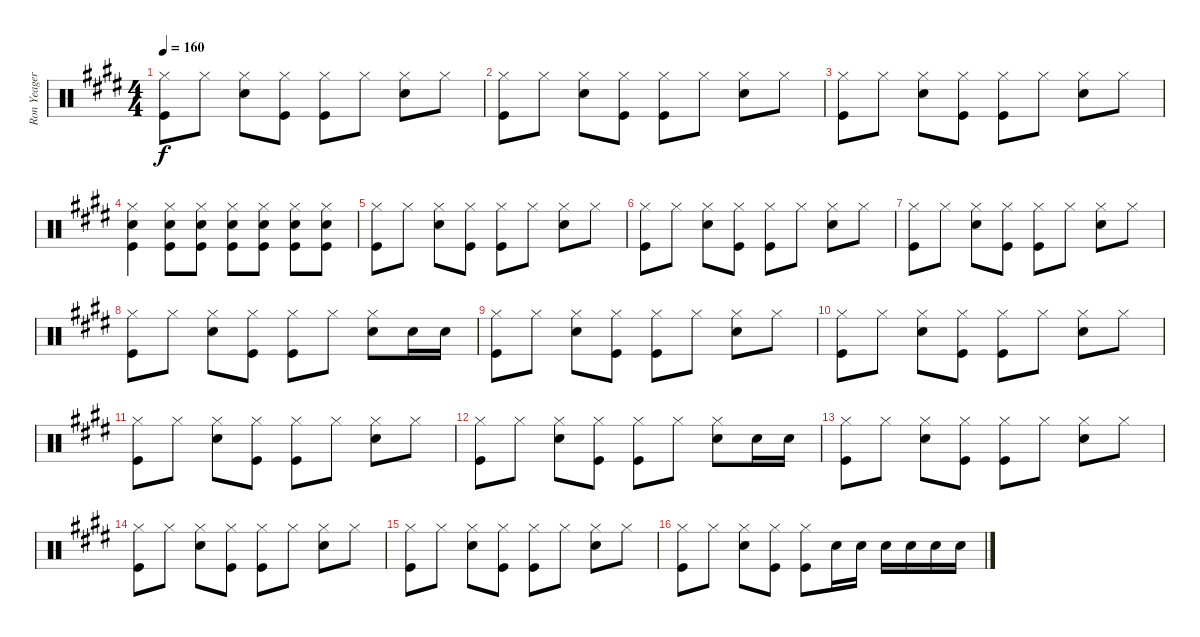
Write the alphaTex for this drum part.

\track ("Ron Yeager Drums" "Ron Yeager") {instrument percussion}
\staff {score}
\articulation defaults
\ts (4 4)
\tempo 160
\clef neutral
\ks e
("Hi-Hat (closed)" "Kick (hit)").8{dy f} "Hi-Hat (closed)".8 ("Hi-Hat (closed)" "Snare (hit) 2").8 ("Hi-Hat (closed)" "Kick (hit)").8 ("Hi-Hat (closed)" "Kick (hit)").8 "Hi-Hat (closed)".8 ("Hi-Hat (closed)" "Snare (hit) 2").8 "Hi-Hat (closed)".8 |
("Hi-Hat (closed)" "Kick (hit)").8 "Hi-Hat (closed)".8 ("Hi-Hat (closed)" "Snare (hit) 2").8 ("Hi-Hat (closed)" "Kick (hit)").8 ("Hi-Hat (closed)" "Kick (hit)").8 "Hi-Hat (closed)".8 ("Hi-Hat (closed)" "Snare (hit) 2").8 "Hi-Hat (closed)".8 |
("Hi-Hat (closed)" "Kick (hit)").8 "Hi-Hat (closed)".8 ("Hi-Hat (closed)" "Snare (hit) 2").8 ("Hi-Hat (closed)" "Kick (hit)").8 ("Hi-Hat (closed)" "Kick (hit)").8 "Hi-Hat (closed)".8 ("Hi-Hat (closed)" "Snare (hit) 2").8 "Hi-Hat (closed)".8 |
("Hi-Hat (closed)" "Snare (hit) 2" "Kick (hit)").4 ("Hi-Hat (closed)" "Snare (hit) 2" "Kick (hit)").8 ("Hi-Hat (closed)" "Snare (hit) 2" "Kick (hit)").8 ("Hi-Hat (closed)" "Snare (hit) 2" "Kick (hit)").8 ("Hi-Hat (closed)" "Snare (hit) 2" "Kick (hit)").8 ("Hi-Hat (closed)" "Snare (hit) 2" "Kick (hit)").8 ("Hi-Hat (closed)" "Snare (hit) 2" "Kick (hit)").8 |
("Hi-Hat (closed)" "Kick (hit)").8 "Hi-Hat (closed)".8 ("Hi-Hat (closed)" "Snare (hit) 2").8 ("Hi-Hat (closed)" "Kick (hit)").8 ("Hi-Hat (closed)" "Kick (hit)").8 "Hi-Hat (closed)".8 ("Hi-Hat (closed)" "Snare (hit) 2").8 "Hi-Hat (closed)".8 |
("Hi-Hat (closed)" "Kick (hit)").8 "Hi-Hat (closed)".8 ("Hi-Hat (closed)" "Snare (hit) 2").8 ("Hi-Hat (closed)" "Kick (hit)").8 ("Hi-Hat (closed)" "Kick (hit)").8 "Hi-Hat (closed)".8 ("Hi-Hat (closed)" "Snare (hit) 2").8 "Hi-Hat (closed)".8 |
("Hi-Hat (closed)" "Kick (hit)").8 "Hi-Hat (closed)".8 ("Hi-Hat (closed)" "Snare (hit) 2").8 ("Hi-Hat (closed)" "Kick (hit)").8 ("Hi-Hat (closed)" "Kick (hit)").8 "Hi-Hat (closed)".8 ("Hi-Hat (closed)" "Snare (hit) 2").8 "Hi-Hat (closed)".8 |
("Hi-Hat (closed)" "Kick (hit)").8 "Hi-Hat (closed)".8 ("Hi-Hat (closed)" "Snare (hit) 2").8 ("Hi-Hat (closed)" "Kick (hit)").8 ("Hi-Hat (closed)" "Kick (hit)").8 "Hi-Hat (closed)".8 ("Hi-Hat (closed)" "Snare (hit) 2").8 "Snare (hit) 2".16 "Snare (hit) 2".16 |
("Hi-Hat (closed)" "Kick (hit)").8 "Hi-Hat (closed)".8 ("Hi-Hat (closed)" "Snare (hit) 2").8 ("Hi-Hat (closed)" "Kick (hit)").8 ("Hi-Hat (closed)" "Kick (hit)").8 "Hi-Hat (closed)".8 ("Hi-Hat (closed)" "Snare (hit) 2").8 "Hi-Hat (closed)".8 |
("Hi-Hat (closed)" "Kick (hit)").8 "Hi-Hat (closed)".8 ("Hi-Hat (closed)" "Snare (hit) 2").8 ("Hi-Hat (closed)" "Kick (hit)").8 ("Hi-Hat (closed)" "Kick (hit)").8 "Hi-Hat (closed)".8 ("Hi-Hat (closed)" "Snare (hit) 2").8 "Hi-Hat (closed)".8 |
("Hi-Hat (closed)" "Kick (hit)").8 "Hi-Hat (closed)".8 ("Hi-Hat (closed)" "Snare (hit) 2").8 ("Hi-Hat (closed)" "Kick (hit)").8 ("Hi-Hat (closed)" "Kick (hit)").8 "Hi-Hat (closed)".8 ("Hi-Hat (closed)" "Snare (hit) 2").8 "Hi-Hat (closed)".8 |
("Hi-Hat (closed)" "Kick (hit)").8 "Hi-Hat (closed)".8 ("Hi-Hat (closed)" "Snare (hit) 2").8 ("Hi-Hat (closed)" "Kick (hit)").8 ("Hi-Hat (closed)" "Kick (hit)").8 "Hi-Hat (closed)".8 ("Hi-Hat (closed)" "Snare (hit) 2").8 "Snare (hit) 2".16 "Snare (hit) 2".16 |
("Hi-Hat (closed)" "Kick (hit)").8 "Hi-Hat (closed)".8 ("Hi-Hat (closed)" "Snare (hit) 2").8 ("Hi-Hat (closed)" "Kick (hit)").8 ("Hi-Hat (closed)" "Kick (hit)").8 "Hi-Hat (closed)".8 ("Hi-Hat (closed)" "Snare (hit) 2").8 "Hi-Hat (closed)".8 |
("Hi-Hat (closed)" "Kick (hit)").8 "Hi-Hat (closed)".8 ("Hi-Hat (closed)" "Snare (hit) 2").8 ("Hi-Hat (closed)" "Kick (hit)").8 ("Hi-Hat (closed)" "Kick (hit)").8 "Hi-Hat (closed)".8 ("Hi-Hat (closed)" "Snare (hit) 2").8 "Hi-Hat (closed)".8 |
("Hi-Hat (closed)" "Kick (hit)").8 "Hi-Hat (closed)".8 ("Hi-Hat (closed)" "Snare (hit) 2").8 ("Hi-Hat (closed)" "Kick (hit)").8 ("Hi-Hat (closed)" "Kick (hit)").8 "Hi-Hat (closed)".8 ("Hi-Hat (closed)" "Snare (hit) 2").8 "Hi-Hat (closed)".8 |
("Hi-Hat (closed)" "Kick (hit)").8 "Hi-Hat (closed)".8 ("Hi-Hat (closed)" "Snare (hit) 2").8 ("Hi-Hat (closed)" "Kick (hit)").8 ("Hi-Hat (closed)" "Kick (hit)").8 "Snare (hit) 2".16 "Snare (hit) 2".16 "Snare (hit) 2".16 "Snare (hit) 2".16 "Snare (hit) 2".16 "Snare (hit) 2".16
